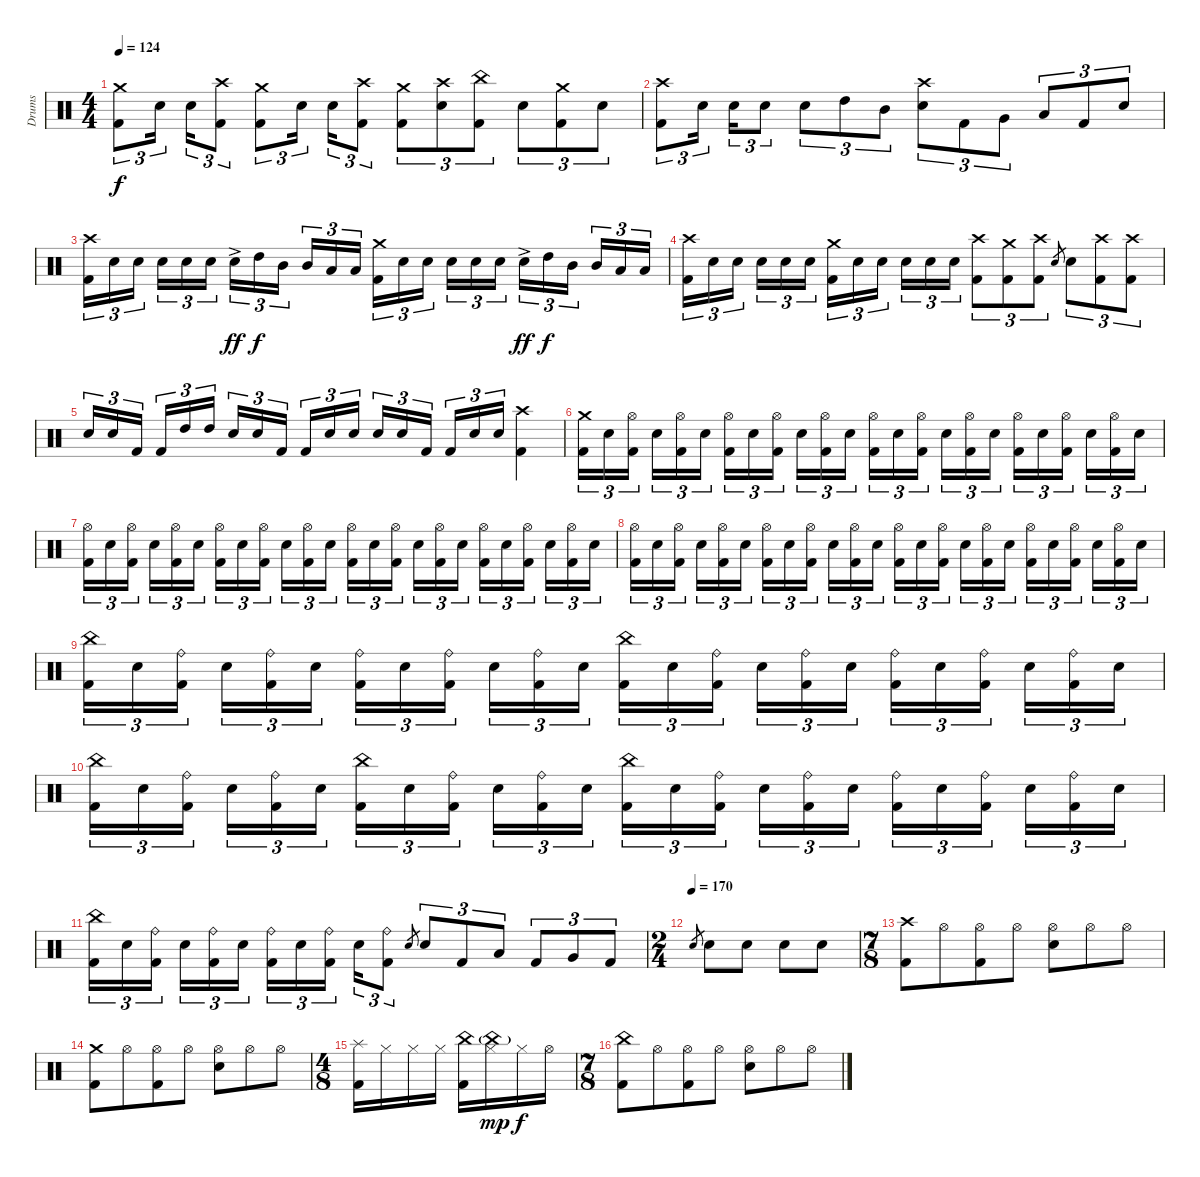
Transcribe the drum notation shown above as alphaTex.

\track ("Drums" "Drums") {instrument percussion}
\staff {score}
\articulation defaults
\ts (4 4)
\tempo 124
\clef neutral
\ks c
("Crash medium (hit)" "Kick (hit) 2").8{tu (3 2) dy f} "Electric Snare (hit)".16{tu (3 2)} "Electric Snare (hit)".16{tu (3 2)} ("Crash high (hit)" "Kick (hit) 2").8{tu (3 2)} ("Crash medium (hit)" "Kick (hit) 2").8{tu (3 2)} "Electric Snare (hit)".16{tu (3 2)} "Electric Snare (hit)".16{tu (3 2)} ("Crash high (hit)" "Kick (hit) 2").8{tu (3 2)} ("Crash medium (hit)" "Kick (hit) 2").8{tu (3 2)} ("Crash high (hit)" "Electric Snare (hit)").8{tu (3 2)} ("China (hit)" "Kick (hit) 2").8{tu (3 2)} "Electric Snare (hit)".8{tu (3 2)} ("Crash medium (hit)" "Kick (hit) 2").8{tu (3 2)} "Electric Snare (hit)".8{tu (3 2)} |
("Crash high (hit)" "Kick (hit) 2").8{tu (3 2)} "Electric Snare (hit)".16{tu (3 2)} "Electric Snare (hit)".16{tu (3 2)} "Electric Snare (hit)".8{tu (3 2)} "Electric Snare (hit)".8{tu (3 2)} "High Tom (hit)".8{tu (3 2)} "Mid Tom (hit)".8{tu (3 2)} ("Crash high (hit)" "Electric Snare (hit)").8{tu (3 2)} "Kick (hit) 2".8{tu (3 2)} "Very Low Tom (hit)".8{tu (3 2)} "Low Floor Tom (hit)".8{tu (3 2)} "Kick (hit) 2".8{tu (3 2)} "Electric Snare (hit)".8{tu (3 2)} |
("Crash high (hit)" "Kick (hit) 2").16{tu (3 2)} "Electric Snare (hit)".16{tu (3 2)} "Electric Snare (hit)".16{tu (3 2)} "Electric Snare (hit)".16{tu (3 2)} "Electric Snare (hit)".16{tu (3 2)} "Electric Snare (hit)".16{tu (3 2)} "Electric Snare (hit)"{ac}.16{tu (3 2) dy ff} "High Tom (hit)".16{tu (3 2) dy f} "Mid Tom (hit)".16{tu (3 2)} "Mid Tom (hit)".16{tu (3 2)} "Low Tom (hit)".16{tu (3 2)} "Low Tom (hit)".16{tu (3 2)} ("Crash medium (hit)" "Kick (hit) 2").16{tu (3 2)} "Electric Snare (hit)".16{tu (3 2)} "Electric Snare (hit)".16{tu (3 2)} "Electric Snare (hit)".16{tu (3 2)} "Electric Snare (hit)".16{tu (3 2)} "Electric Snare (hit)".16{tu (3 2)} "Electric Snare (hit)"{ac}.16{tu (3 2) dy ff} "High Tom (hit)".16{tu (3 2) dy f} "Mid Tom (hit)".16{tu (3 2)} "Mid Tom (hit)".16{tu (3 2)} "Low Tom (hit)".16{tu (3 2)} "Low Tom (hit)".16{tu (3 2)} |
("Crash high (hit)" "Kick (hit) 2").16{tu (3 2)} "Electric Snare (hit)".16{tu (3 2)} "Electric Snare (hit)".16{tu (3 2)} "Electric Snare (hit)".16{tu (3 2)} "Electric Snare (hit)".16{tu (3 2)} "Electric Snare (hit)".16{tu (3 2)} ("Crash medium (hit)" "Kick (hit) 2").16{tu (3 2)} "Electric Snare (hit)".16{tu (3 2)} "Electric Snare (hit)".16{tu (3 2)} "Electric Snare (hit)".16{tu (3 2)} "Electric Snare (hit)".16{tu (3 2)} "Electric Snare (hit)".16{tu (3 2)} ("Crash high (hit)" "Kick (hit) 2").8{tu (3 2)} ("Crash medium (hit)" "Kick (hit) 2").8{tu (3 2)} ("Crash high (hit)" "Kick (hit) 2").8{tu (3 2)} "Electric Snare (hit)".8{gr} "Electric Snare (hit)".8{tu (3 2)} ("Crash high (hit)" "Kick (hit) 2").8{tu (3 2)} ("Crash high (hit)" "Kick (hit) 2").8{tu (3 2)} |
"Electric Snare (hit)".16{tu (3 2)} "Electric Snare (hit)".16{tu (3 2)} "Kick (hit) 2".16{tu (3 2)} "Kick (hit) 2".16{tu (3 2)} "High Tom (hit)".16{tu (3 2)} "High Tom (hit)".16{tu (3 2)} "Electric Snare (hit)".16{tu (3 2)} "Electric Snare (hit)".16{tu (3 2)} "Kick (hit) 2".16{tu (3 2)} "Kick (hit) 2".16{tu (3 2)} "Electric Snare (hit)".16{tu (3 2)} "Electric Snare (hit)".16{tu (3 2)} "Electric Snare (hit)".16{tu (3 2)} "Electric Snare (hit)".16{tu (3 2)} "Kick (hit) 2".16{tu (3 2)} "Kick (hit) 2".16{tu (3 2)} "Electric Snare (hit)".16{tu (3 2)} "Electric Snare (hit)".16{tu (3 2)} ("Crash high (hit)" "Kick (hit) 2").4 |
("Crash medium (hit)" "Kick (hit) 2").16{tu (3 2)} "Electric Snare (hit)".16{tu (3 2)} ("Hi-Hat (open)" "Kick (hit) 2").16{tu (3 2)} "Electric Snare (hit)".16{tu (3 2)} ("Hi-Hat (open)" "Kick (hit) 2").16{tu (3 2)} "Electric Snare (hit)".16{tu (3 2)} ("Hi-Hat (open)" "Kick (hit) 2").16{tu (3 2)} "Electric Snare (hit)".16{tu (3 2)} ("Hi-Hat (open)" "Kick (hit) 2").16{tu (3 2)} "Electric Snare (hit)".16{tu (3 2)} ("Hi-Hat (open)" "Kick (hit) 2").16{tu (3 2)} "Electric Snare (hit)".16{tu (3 2)} ("Hi-Hat (open)" "Kick (hit) 2").16{tu (3 2)} "Electric Snare (hit)".16{tu (3 2)} ("Hi-Hat (open)" "Kick (hit) 2").16{tu (3 2)} "Electric Snare (hit)".16{tu (3 2)} ("Hi-Hat (open)" "Kick (hit) 2").16{tu (3 2)} "Electric Snare (hit)".16{tu (3 2)} ("Hi-Hat (open)" "Kick (hit) 2").16{tu (3 2)} "Electric Snare (hit)".16{tu (3 2)} ("Hi-Hat (open)" "Kick (hit) 2").16{tu (3 2)} "Electric Snare (hit)".16{tu (3 2)} ("Hi-Hat (open)" "Kick (hit) 2").16{tu (3 2)} "Electric Snare (hit)".16{tu (3 2)} |
("Hi-Hat (open)" "Kick (hit) 2").16{tu (3 2)} "Electric Snare (hit)".16{tu (3 2)} ("Hi-Hat (open)" "Kick (hit) 2").16{tu (3 2)} "Electric Snare (hit)".16{tu (3 2)} ("Hi-Hat (open)" "Kick (hit) 2").16{tu (3 2)} "Electric Snare (hit)".16{tu (3 2)} ("Hi-Hat (open)" "Kick (hit) 2").16{tu (3 2)} "Electric Snare (hit)".16{tu (3 2)} ("Hi-Hat (open)" "Kick (hit) 2").16{tu (3 2)} "Electric Snare (hit)".16{tu (3 2)} ("Hi-Hat (open)" "Kick (hit) 2").16{tu (3 2)} "Electric Snare (hit)".16{tu (3 2)} ("Hi-Hat (open)" "Kick (hit) 2").16{tu (3 2)} "Electric Snare (hit)".16{tu (3 2)} ("Hi-Hat (open)" "Kick (hit) 2").16{tu (3 2)} "Electric Snare (hit)".16{tu (3 2)} ("Hi-Hat (open)" "Kick (hit) 2").16{tu (3 2)} "Electric Snare (hit)".16{tu (3 2)} ("Hi-Hat (open)" "Kick (hit) 2").16{tu (3 2)} "Electric Snare (hit)".16{tu (3 2)} ("Hi-Hat (open)" "Kick (hit) 2").16{tu (3 2)} "Electric Snare (hit)".16{tu (3 2)} ("Hi-Hat (open)" "Kick (hit) 2").16{tu (3 2)} "Electric Snare (hit)".16{tu (3 2)} |
("Hi-Hat (open)" "Kick (hit) 2").16{tu (3 2)} "Electric Snare (hit)".16{tu (3 2)} ("Hi-Hat (open)" "Kick (hit) 2").16{tu (3 2)} "Electric Snare (hit)".16{tu (3 2)} ("Hi-Hat (open)" "Kick (hit) 2").16{tu (3 2)} "Electric Snare (hit)".16{tu (3 2)} ("Hi-Hat (open)" "Kick (hit) 2").16{tu (3 2)} "Electric Snare (hit)".16{tu (3 2)} ("Hi-Hat (open)" "Kick (hit) 2").16{tu (3 2)} "Electric Snare (hit)".16{tu (3 2)} ("Hi-Hat (open)" "Kick (hit) 2").16{tu (3 2)} "Electric Snare (hit)".16{tu (3 2)} ("Hi-Hat (open)" "Kick (hit) 2").16{tu (3 2)} "Electric Snare (hit)".16{tu (3 2)} ("Hi-Hat (open)" "Kick (hit) 2").16{tu (3 2)} "Electric Snare (hit)".16{tu (3 2)} ("Hi-Hat (open)" "Kick (hit) 2").16{tu (3 2)} "Electric Snare (hit)".16{tu (3 2)} ("Hi-Hat (open)" "Kick (hit) 2").16{tu (3 2)} "Electric Snare (hit)".16{tu (3 2)} ("Hi-Hat (open)" "Kick (hit) 2").16{tu (3 2)} "Electric Snare (hit)".16{tu (3 2)} ("Hi-Hat (open)" "Kick (hit) 2").16{tu (3 2)} "Electric Snare (hit)".16{tu (3 2)} |
("China (hit)" "Kick (hit) 2").16{tu (3 2)} "Electric Snare (hit)".16{tu (3 2)} ("Ride (bell)" "Kick (hit) 2").16{tu (3 2)} "Electric Snare (hit)".16{tu (3 2)} ("Ride (bell)" "Kick (hit) 2").16{tu (3 2)} "Electric Snare (hit)".16{tu (3 2)} ("Ride (bell)" "Kick (hit) 2").16{tu (3 2)} "Electric Snare (hit)".16{tu (3 2)} ("Ride (bell)" "Kick (hit) 2").16{tu (3 2)} "Electric Snare (hit)".16{tu (3 2)} ("Ride (bell)" "Kick (hit) 2").16{tu (3 2)} "Electric Snare (hit)".16{tu (3 2)} ("China (hit)" "Kick (hit) 2").16{tu (3 2)} "Electric Snare (hit)".16{tu (3 2)} ("Ride (bell)" "Kick (hit) 2").16{tu (3 2)} "Electric Snare (hit)".16{tu (3 2)} ("Ride (bell)" "Kick (hit) 2").16{tu (3 2)} "Electric Snare (hit)".16{tu (3 2)} ("Ride (bell)" "Kick (hit) 2").16{tu (3 2)} "Electric Snare (hit)".16{tu (3 2)} ("Ride (bell)" "Kick (hit) 2").16{tu (3 2)} "Electric Snare (hit)".16{tu (3 2)} ("Ride (bell)" "Kick (hit) 2").16{tu (3 2)} "Electric Snare (hit)".16{tu (3 2)} |
("China (hit)" "Kick (hit) 2").16{tu (3 2)} "Electric Snare (hit)".16{tu (3 2)} ("Ride (bell)" "Kick (hit) 2").16{tu (3 2)} "Electric Snare (hit)".16{tu (3 2)} ("Ride (bell)" "Kick (hit) 2").16{tu (3 2)} "Electric Snare (hit)".16{tu (3 2)} ("China (hit)" "Kick (hit) 2").16{tu (3 2)} "Electric Snare (hit)".16{tu (3 2)} ("Ride (bell)" "Kick (hit) 2").16{tu (3 2)} "Electric Snare (hit)".16{tu (3 2)} ("Ride (bell)" "Kick (hit) 2").16{tu (3 2)} "Electric Snare (hit)".16{tu (3 2)} ("China (hit)" "Kick (hit) 2").16{tu (3 2)} "Electric Snare (hit)".16{tu (3 2)} ("Ride (bell)" "Kick (hit) 2").16{tu (3 2)} "Electric Snare (hit)".16{tu (3 2)} ("Ride (bell)" "Kick (hit) 2").16{tu (3 2)} "Electric Snare (hit)".16{tu (3 2)} ("Ride (bell)" "Kick (hit) 2").16{tu (3 2)} "Electric Snare (hit)".16{tu (3 2)} ("Ride (bell)" "Kick (hit) 2").16{tu (3 2)} "Electric Snare (hit)".16{tu (3 2)} ("Ride (bell)" "Kick (hit) 2").16{tu (3 2)} "Electric Snare (hit)".16{tu (3 2)} |
("China (hit)" "Kick (hit) 2").16{tu (3 2)} "Electric Snare (hit)".16{tu (3 2)} ("Ride (bell)" "Kick (hit) 2").16{tu (3 2)} "Electric Snare (hit)".16{tu (3 2)} ("Ride (bell)" "Kick (hit) 2").16{tu (3 2)} "Electric Snare (hit)".16{tu (3 2)} ("Ride (bell)" "Kick (hit) 2").16{tu (3 2)} "Electric Snare (hit)".16{tu (3 2)} ("Ride (bell)" "Kick (hit) 2").16{tu (3 2)} "Electric Snare (hit)".16{tu (3 2)} ("Ride (bell)" "Kick (hit) 2").8{tu (3 2)} "Electric Snare (hit)".8{gr} "Electric Snare (hit)".8{tu (3 2)} "Kick (hit) 2".8{tu (3 2)} "Low Tom (hit)".8{tu (3 2)} "Kick (hit) 2".8{tu (3 2)} "Very Low Tom (hit)".8{tu (3 2)} "Kick (hit) 2".8{tu (3 2)} |
\ts (2 4)
\tempo (170)
"Electric Snare (hit)".8{gr} "Electric Snare (hit)".8 "Electric Snare (hit)".8 "Electric Snare (hit)".8 "Electric Snare (hit)".8 |
\ts (7 8)
("Crash high (hit)" "Kick (hit) 2").8 "Hi-Hat (open)".8 ("Hi-Hat (open)" "Kick (hit) 2").8 "Hi-Hat (open)".8 ("Hi-Hat (open)" "Electric Snare (hit)").8 "Hi-Hat (open)".8 "Hi-Hat (open)".8 |
("Crash medium (hit)" "Kick (hit) 2").8 "Hi-Hat (open)".8 ("Hi-Hat (open)" "Kick (hit) 2").8 "Hi-Hat (open)".8 ("Hi-Hat (open)" "Electric Snare (hit)").8 "Hi-Hat (open)".8 "Hi-Hat (open)".8 |
\ts (4 8)
("Splash (hit)" "Kick (hit) 2").16 "Hi-Hat (closed)".16 "Hi-Hat (closed)".16 "Hi-Hat (closed)".16 ("China (hit)" "Kick (hit) 2").16 ("Hi-Hat (closed)" "China (hit)"{g}).16{dy mp} "Hi-Hat (closed)".16{dy f} "Hi-Hat (open)".16 |
\ts (7 8)
("China (hit)" "Kick (hit) 2").8 "Hi-Hat (open)".8 ("Hi-Hat (open)" "Kick (hit) 2").8 "Hi-Hat (open)".8 ("Hi-Hat (open)" "Electric Snare (hit)").8 "Hi-Hat (open)".8 "Hi-Hat (open)".8
